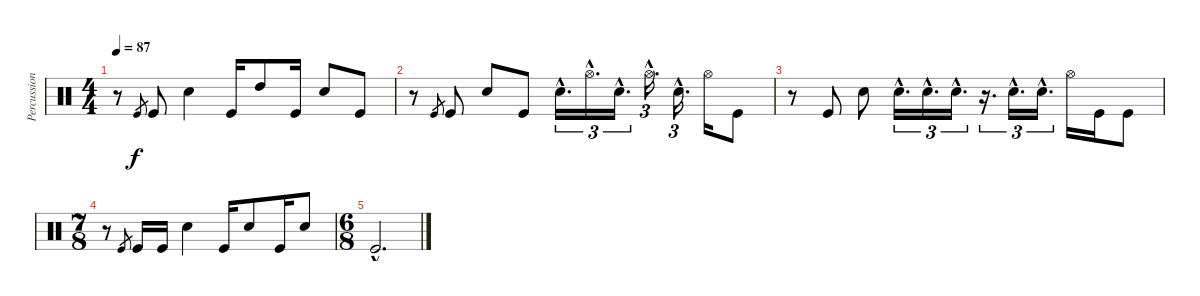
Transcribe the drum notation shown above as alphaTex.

\track ("Percussion" "Percussion") {instrument percussion}
\staff {score}
\articulation defaults
\ts (4 4)
\tempo 87
\clef neutral
\ks c
r.8{dy f} "Kick (hit)".8{gr} "Kick (hit)".8 "Electric Snare (hit)".4 "Kick (hit)".16 "High Tom (hit)".8 "Kick (hit)".16 "Electric Snare (hit)".8 "Kick (hit)".8 |
r.8 "Kick (hit)".8{gr} "Kick (hit)".8 "Electric Snare (hit)".8 "Kick (hit)".8 "Electric Snare (hit)"{hac}.16{d tu (3 2)} "Hi-Hat (open)"{hac}.16{d tu (3 2)} "Electric Snare (hit)"{hac}.16{d tu (3 2)} "Hi-Hat (open)"{hac}.16{d tu (3 2)} "Electric Snare (hit)"{hac}.16{d tu (3 2)} "Hi-Hat (open)".16 "Kick (hit)".8 |
r.8 "Kick (hit)".8 "Electric Snare (hit)".8 "Electric Snare (hit)"{hac}.16{d tu (3 2)} "Electric Snare (hit)"{hac}.16{d tu (3 2)} "Electric Snare (hit)"{hac}.16{d tu (3 2)} r.16{d tu (3 2)} "Electric Snare (hit)"{hac}.16{d tu (3 2)} "Electric Snare (hit)"{hac}.16{d tu (3 2)} "Hi-Hat (open)".16 "Kick (hit)".16 "Kick (hit)".8 |
\ts (7 8)
r.8 "Kick (hit)".8{gr} "Kick (hit)".16 "Kick (hit)".16 "Electric Snare (hit)".4 "Kick (hit)".16 "Electric Snare (hit)".8 "Kick (hit)".16 "Electric Snare (hit)".8 |
\ts (6 8)
"Kick (hit)"{hac}.2{d}
